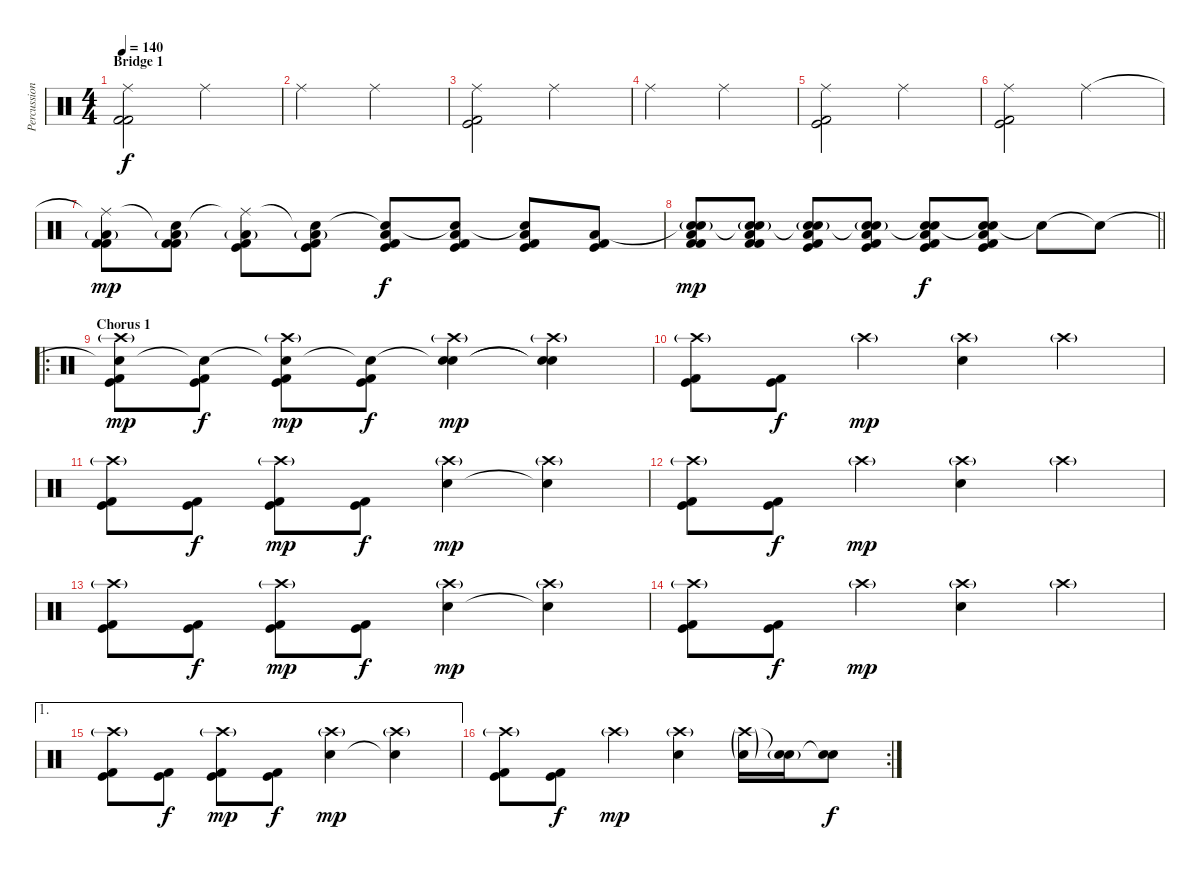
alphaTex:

\track ("Percussion" "Percussion") {instrument percussion}
\staff {score}
\articulation defaults
\ts (4 4)
\section ("" "Bridge 1")
\tempo 140
\clef neutral
\ks c
("Ride (middle)" "Kick (hit) 2" "Kick (hit) 2").2{dy f} "Ride (middle)".2 |
"Ride (middle)".2 "Ride (middle)".2 |
("Ride (middle)" "Kick (hit)" "Kick (hit) 2").2 "Ride (middle)".2 |
"Ride (middle)".2 "Ride (middle)".2 |
("Ride (middle)" "Kick (hit)" "Kick (hit) 2").2 "Ride (middle)".2 |
("Ride (middle)" "Kick (hit) 2" "Kick (hit)").2 "Ride (middle)".2 |
("Ride (middle)"{t} "Low Floor Tom (hit)"{g} "Kick (hit) 2" "Kick (hit) 2").8{dy mp} ("Snare (hit)"{t} "Low Floor Tom (hit)"{g} "Kick (hit) 2" "Kick (hit) 2").8 ("Ride (middle)"{t} "Low Floor Tom (hit)"{g} "Kick (hit) 2" "Kick (hit)").8 ("Snare (hit)"{t} "Low Floor Tom (hit)"{g} "Kick (hit) 2" "Kick (hit)").8 ("Snare (hit)"{t} "Low Floor Tom (hit)" "Kick (hit) 2" "Kick (hit)").8{dy f} ("Snare (hit)"{t} "Low Floor Tom (hit)" "Kick (hit) 2" "Kick (hit)").8 ("Snare (hit)"{t} "Low Floor Tom (hit)" "Kick (hit) 2" "Kick (hit)").8 ("Low Floor Tom (hit)" "Kick (hit) 2" "Kick (hit)").8 |
\barLineRight lightlight
("Snare (hit)"{t} "Electric Snare (hit)"{g} "Low Floor Tom (hit)" "Kick (hit) 2" "Kick (hit) 2").8{dy mp} ("Snare (hit)"{t} "Electric Snare (hit)"{g} "Low Floor Tom (hit)" "Kick (hit) 2" "Kick (hit) 2").8 ("Snare (hit)"{t} "Electric Snare (hit)"{g} "Low Floor Tom (hit)" "Kick (hit) 2" "Kick (hit)").8 ("Snare (hit)"{t} "Electric Snare (hit)"{g} "Low Floor Tom (hit)" "Kick (hit) 2" "Kick (hit)").8 ("Snare (hit)"{t} "Electric Snare (hit)" "Low Floor Tom (hit)" "Kick (hit) 2" "Kick (hit)").8{dy f} ("Snare (hit)"{t} "Electric Snare (hit)" "Low Floor Tom (hit)" "Kick (hit) 2" "Kick (hit)").8 "Snare (hit)"{t}.8 "Snare (hit)"{t}.8 |
\ro
\section ("" "Chorus 1")
("Snare (hit)"{t} "Crash high (hit)"{g} "Kick (hit) 2" "Kick (hit)").8{dy mp} ("Snare (hit)"{t} "Kick (hit) 2" "Kick (hit)").8{dy f} ("Snare (hit)"{t} "Crash high (hit)"{g} "Kick (hit) 2" "Kick (hit)").8{dy mp} ("Snare (hit)"{t} "Kick (hit) 2" "Kick (hit)").8{dy f} ("Snare (hit)"{t} "Crash high (hit)"{g} "Electric Snare (hit)").4{dy mp} ("Snare (hit)"{t} "Crash high (hit)"{g} "Snare (hit)"{t}).4 |
("Crash high (hit)"{g} "Kick (hit) 2" "Kick (hit)").8 ("Kick (hit) 2" "Kick (hit)").8{dy f} "Crash high (hit)"{g}.4{dy mp} ("Crash high (hit)"{g} "Electric Snare (hit)").4 "Crash high (hit)"{g}.4 |
("Crash high (hit)"{g} "Kick (hit) 2" "Kick (hit)").8 ("Kick (hit) 2" "Kick (hit)").8{dy f} ("Crash high (hit)"{g} "Kick (hit) 2" "Kick (hit)").8{dy mp} ("Kick (hit) 2" "Kick (hit)").8{dy f} ("Crash high (hit)"{g} "Electric Snare (hit)").4{dy mp} ("Crash high (hit)"{g} "Snare (hit)"{t}).4 |
("Crash high (hit)"{g} "Kick (hit) 2" "Kick (hit)").8 ("Kick (hit) 2" "Kick (hit)").8{dy f} "Crash high (hit)"{g}.4{dy mp} ("Crash high (hit)"{g} "Electric Snare (hit)").4 "Crash high (hit)"{g}.4 |
("Crash high (hit)"{g} "Kick (hit) 2" "Kick (hit)").8 ("Kick (hit) 2" "Kick (hit)").8{dy f} ("Crash high (hit)"{g} "Kick (hit) 2" "Kick (hit)").8{dy mp} ("Kick (hit) 2" "Kick (hit)").8{dy f} ("Crash high (hit)"{g} "Electric Snare (hit)").4{dy mp} ("Crash high (hit)"{g} "Snare (hit)"{t}).4 |
("Crash high (hit)"{g} "Kick (hit) 2" "Kick (hit)").8 ("Kick (hit) 2" "Kick (hit)").8{dy f} "Crash high (hit)"{g}.4{dy mp} ("Crash high (hit)"{g} "Electric Snare (hit)").4 "Crash high (hit)"{g}.4 |
\ae 1
("Crash high (hit)"{g} "Kick (hit) 2" "Kick (hit)").8 ("Kick (hit) 2" "Kick (hit)").8{dy f} ("Crash high (hit)"{g} "Kick (hit) 2" "Kick (hit)").8{dy mp} ("Kick (hit) 2" "Kick (hit)").8{dy f} ("Crash high (hit)"{g} "Electric Snare (hit)").4{dy mp} ("Crash high (hit)"{g} "Snare (hit)"{t}).4 |
\rc 2
("Crash high (hit)"{g} "Kick (hit) 2" "Kick (hit)").8 ("Kick (hit) 2" "Kick (hit)").8{dy f} "Crash high (hit)"{g}.4{dy mp} ("Crash high (hit)"{g} "Electric Snare (hit)").4 ("Crash high (hit)"{g} "Electric Snare (hit)"{g}).16 ("Snare (hit)"{t} "Electric Snare (hit)"{g}).16 ("Snare (hit)"{t} "Electric Snare (hit)").8{dy f}
